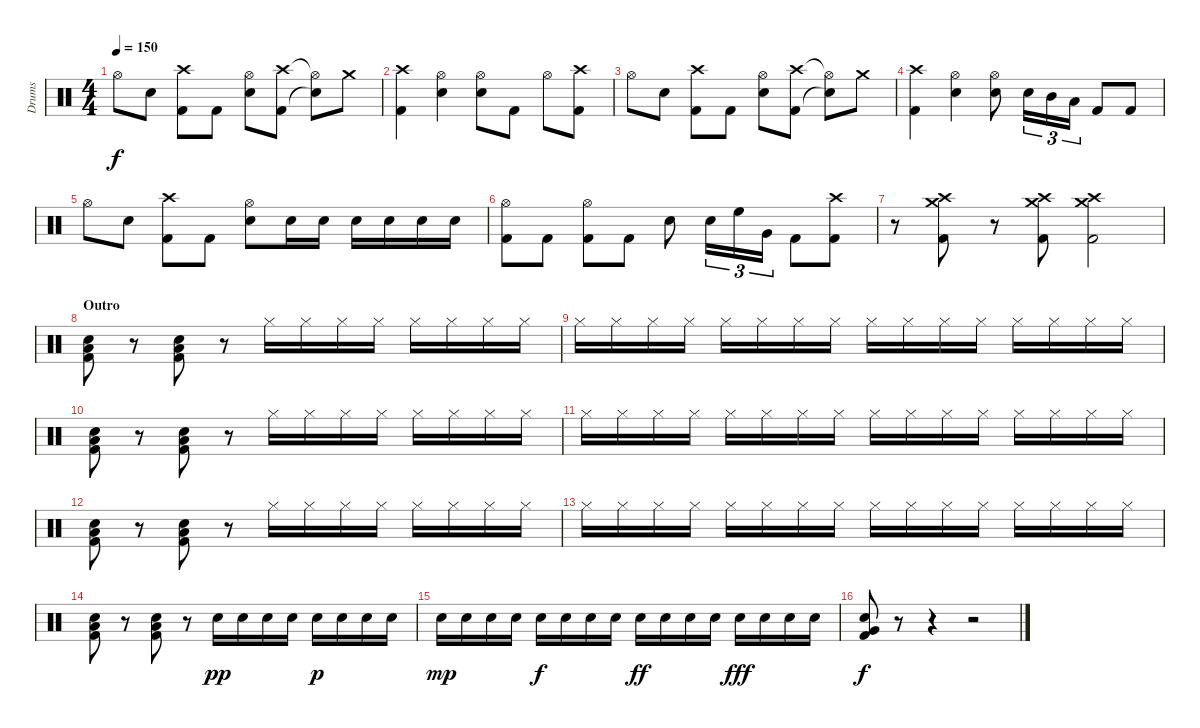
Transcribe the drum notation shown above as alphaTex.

\track ("Drums" "Drums") {instrument percussion}
\staff {score}
\articulation defaults
\ts (4 4)
\tempo 150
\clef neutral
\ks c "Hi-Hat (open)".8{dy f} "Electric Snare (hit)".8
("Crash high (hit)" "Kick (hit) 2").8 "Kick (hit) 2".8 ("Hi-Hat (open)" "Electric Snare (hit)").8 ("Crash high (hit)" "Kick (hit) 2").8 ("Hi-Hat (open)"{t} "Snare (hit)"{t}).8 "Crash medium (hit)".8 |
("Crash high (hit)" "Kick (hit) 2").4 ("Hi-Hat (open)" "Electric Snare (hit)").4 ("Hi-Hat (open)" "Electric Snare (hit)").8 "Kick (hit) 2".8 "Hi-Hat (open)".8 ("Crash high (hit)" "Kick (hit) 2").8 |
"Hi-Hat (open)".8 "Electric Snare (hit)".8 ("Crash high (hit)" "Kick (hit) 2").8 "Kick (hit) 2".8 ("Hi-Hat (open)" "Electric Snare (hit)").8 ("Crash high (hit)" "Kick (hit) 2").8 ("Hi-Hat (open)"{t} "Snare (hit)"{t}).8 "Crash medium (hit)".8 |
("Crash high (hit)" "Kick (hit) 2").4 ("Hi-Hat (open)" "Electric Snare (hit)").4 ("Hi-Hat (open)" "Electric Snare (hit)").8 "Electric Snare (hit)".16{tu (3 2)} "Mid Tom (hit)".16{tu (3 2)} "Low Tom (hit)".16{tu (3 2)} "Kick (hit) 2".8 "Kick (hit) 2".8 |
"Hi-Hat (open)".8 "Electric Snare (hit)".8 ("Crash high (hit)" "Kick (hit) 2").8 "Kick (hit) 2".8 ("Hi-Hat (open)" "Electric Snare (hit)").8 "Electric Snare (hit)".16 "Electric Snare (hit)".16 "Electric Snare (hit)".16 "Electric Snare (hit)".16 "Electric Snare (hit)".16 "Electric Snare (hit)".16 |
("Hi-Hat (open)" "Kick (hit) 2").8 "Kick (hit) 2".8 ("Hi-Hat (open)" "Kick (hit) 2").8 "Kick (hit) 2".8 "Electric Snare (hit)".8 "Electric Snare (hit)".16{tu (3 2)} "High Floor Tom (hit)".16{tu (3 2)} "Very Low Tom (hit)".16{tu (3 2)} "Kick (hit) 2".8 ("Crash high (hit)" "Kick (hit) 2").8 |
r.8 ("Crash high (hit)" "Crash medium (hit)" "Kick (hit) 2").8 r.8 ("Crash high (hit)" "Crash medium (hit)" "Kick (hit) 2").8 ("Crash high (hit)" "Crash medium (hit)" "Kick (hit) 2").2 |
\section ("" "Outro")
("Electric Snare (hit)" "Low Floor Tom (hit)" "Kick (hit) 2").8 r.8 ("Electric Snare (hit)" "Low Floor Tom (hit)" "Kick (hit) 2").8 r.8 "Hi-Hat (closed)".16 "Hi-Hat (closed)".16 "Hi-Hat (closed)".16 "Hi-Hat (closed)".16 "Hi-Hat (closed)".16 "Hi-Hat (closed)".16 "Hi-Hat (closed)".16 "Hi-Hat (closed)".16 |
"Hi-Hat (closed)".16 "Hi-Hat (closed)".16 "Hi-Hat (closed)".16 "Hi-Hat (closed)".16 "Hi-Hat (closed)".16 "Hi-Hat (closed)".16 "Hi-Hat (closed)".16 "Hi-Hat (closed)".16 "Hi-Hat (closed)".16 "Hi-Hat (closed)".16 "Hi-Hat (closed)".16 "Hi-Hat (closed)".16 "Hi-Hat (closed)".16 "Hi-Hat (closed)".16 "Hi-Hat (closed)".16 "Hi-Hat (closed)".16 |
("Electric Snare (hit)" "Low Floor Tom (hit)" "Kick (hit) 2").8 r.8 ("Electric Snare (hit)" "Low Floor Tom (hit)" "Kick (hit) 2").8 r.8 "Hi-Hat (closed)".16 "Hi-Hat (closed)".16 "Hi-Hat (closed)".16 "Hi-Hat (closed)".16 "Hi-Hat (closed)".16 "Hi-Hat (closed)".16 "Hi-Hat (closed)".16 "Hi-Hat (closed)".16 |
"Hi-Hat (closed)".16 "Hi-Hat (closed)".16 "Hi-Hat (closed)".16 "Hi-Hat (closed)".16 "Hi-Hat (closed)".16 "Hi-Hat (closed)".16 "Hi-Hat (closed)".16 "Hi-Hat (closed)".16 "Hi-Hat (closed)".16 "Hi-Hat (closed)".16 "Hi-Hat (closed)".16 "Hi-Hat (closed)".16 "Hi-Hat (closed)".16 "Hi-Hat (closed)".16 "Hi-Hat (closed)".16 "Hi-Hat (closed)".16 |
("Electric Snare (hit)" "Low Floor Tom (hit)" "Kick (hit) 2").8 r.8 ("Electric Snare (hit)" "Low Floor Tom (hit)" "Kick (hit) 2").8 r.8 "Hi-Hat (closed)".16 "Hi-Hat (closed)".16 "Hi-Hat (closed)".16 "Hi-Hat (closed)".16 "Hi-Hat (closed)".16 "Hi-Hat (closed)".16 "Hi-Hat (closed)".16 "Hi-Hat (closed)".16 |
"Hi-Hat (closed)".16 "Hi-Hat (closed)".16 "Hi-Hat (closed)".16 "Hi-Hat (closed)".16 "Hi-Hat (closed)".16 "Hi-Hat (closed)".16 "Hi-Hat (closed)".16 "Hi-Hat (closed)".16 "Hi-Hat (closed)".16 "Hi-Hat (closed)".16 "Hi-Hat (closed)".16 "Hi-Hat (closed)".16 "Hi-Hat (closed)".16 "Hi-Hat (closed)".16 "Hi-Hat (closed)".16 "Hi-Hat (closed)".16 |
("Electric Snare (hit)" "Low Floor Tom (hit)" "Kick (hit) 2").8 r.8 ("Electric Snare (hit)" "Low Floor Tom (hit)" "Kick (hit) 2").8 r.8 "Electric Snare (hit)".16{dy pp} "Electric Snare (hit)".16 "Electric Snare (hit)".16 "Electric Snare (hit)".16 "Electric Snare (hit)".16{dy p} "Electric Snare (hit)".16 "Electric Snare (hit)".16 "Electric Snare (hit)".16 |
"Electric Snare (hit)".16{dy mp} "Electric Snare (hit)".16 "Electric Snare (hit)".16 "Electric Snare (hit)".16 "Electric Snare (hit)".16{dy f} "Electric Snare (hit)".16 "Electric Snare (hit)".16 "Electric Snare (hit)".16 "Electric Snare (hit)".16{dy ff} "Electric Snare (hit)".16 "Electric Snare (hit)".16 "Electric Snare (hit)".16 "Electric Snare (hit)".16{dy fff} "Electric Snare (hit)".16 "Electric Snare (hit)".16 "Electric Snare (hit)".16 |
("Electric Snare (hit)" "Very Low Tom (hit)" "Kick (hit) 2").8{dy f} r.8 r.4 r.2
